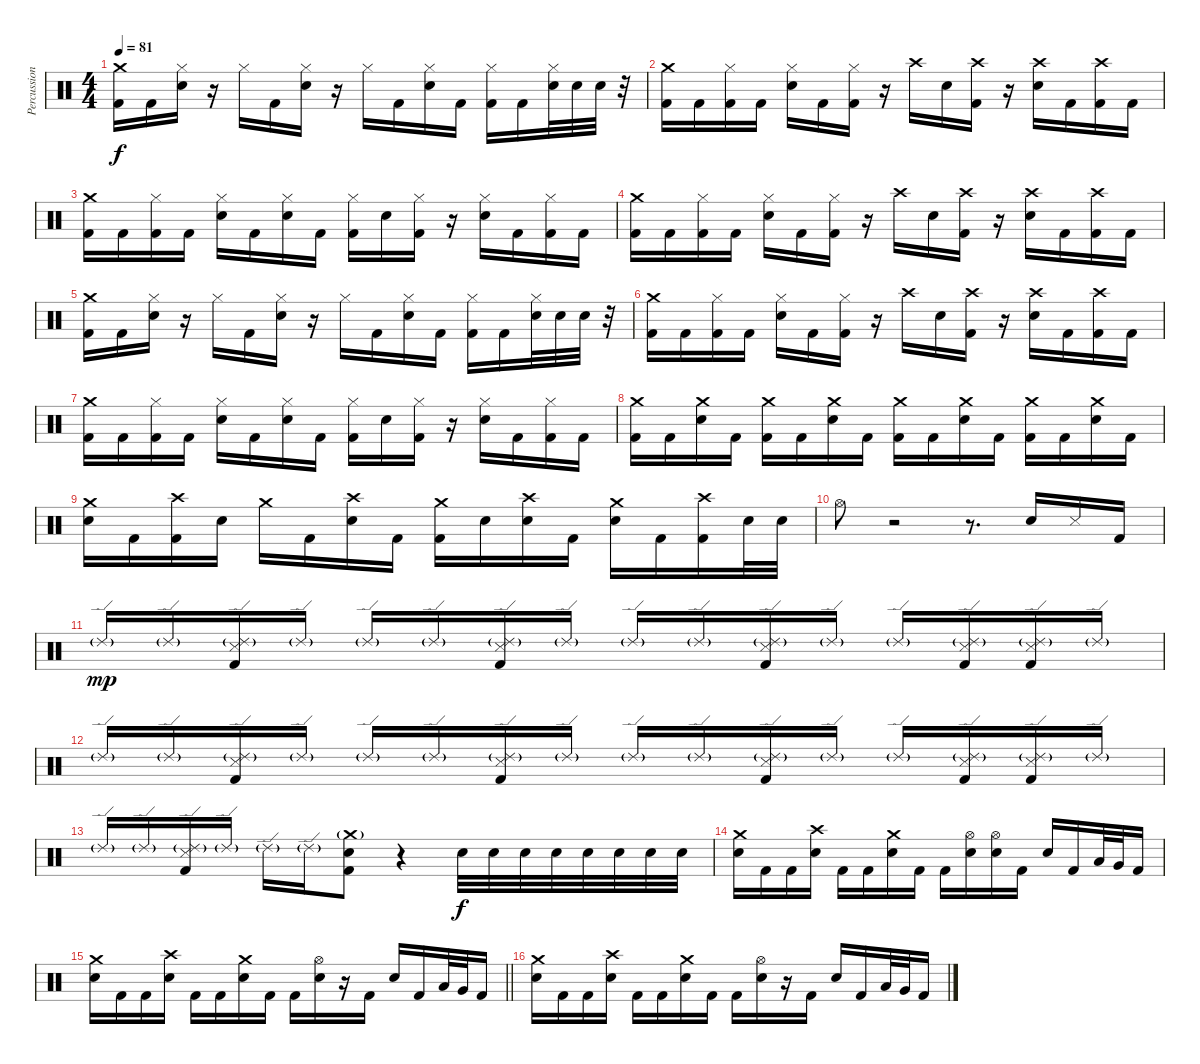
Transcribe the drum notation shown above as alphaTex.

\track ("Percussions" "Percussion") {instrument percussion}
\staff {score}
\articulation defaults
\ts (4 4)
\tempo 81
\clef neutral
\ks c
("Crash medium (hit)" "Kick (hit) 2").16{dy f} "Kick (hit) 2".16 ("Hi-Hat (closed)" "Electric Snare (hit)").16 r.16 "Hi-Hat (closed)".16 "Kick (hit) 2".16 ("Hi-Hat (closed)" "Electric Snare (hit)").16 r.16 "Hi-Hat (closed)".16 "Kick (hit) 2".16 ("Hi-Hat (closed)" "Electric Snare (hit)").16 "Kick (hit) 2".16 ("Hi-Hat (closed)" "Kick (hit) 2").16 "Kick (hit) 2".16 ("Hi-Hat (closed)" "Electric Snare (hit)").32 "Electric Snare (hit)".32 "Electric Snare (hit)".32 r.32 |
("Crash medium (hit)" "Kick (hit) 2").16 "Kick (hit) 2".16 ("Hi-Hat (closed)" "Kick (hit) 2").16 "Kick (hit) 2".16 ("Hi-Hat (closed)" "Electric Snare (hit)").16 "Kick (hit) 2".16 ("Hi-Hat (closed)" "Kick (hit) 2").16 r.16 "Crash high (hit)".16 "Electric Snare (hit)".16 ("Crash high (hit)" "Kick (hit) 2").16 r.16 ("Crash high (hit)" "Electric Snare (hit)").16 "Kick (hit) 2".16 ("Crash high (hit)" "Kick (hit) 2").16 "Kick (hit) 2".16 |
("Crash medium (hit)" "Kick (hit) 2").16 "Kick (hit) 2".16 ("Hi-Hat (closed)" "Kick (hit) 2").16 "Kick (hit) 2".16 ("Hi-Hat (closed)" "Electric Snare (hit)").16 "Kick (hit) 2".16 ("Hi-Hat (closed)" "Electric Snare (hit)").16 "Kick (hit) 2".16 ("Hi-Hat (closed)" "Kick (hit) 2").16 "Electric Snare (hit)".16 ("Hi-Hat (closed)" "Kick (hit) 2").16 r.16 ("Hi-Hat (closed)" "Electric Snare (hit)").16 "Kick (hit) 2".16 ("Hi-Hat (closed)" "Kick (hit) 2").16 "Kick (hit) 2".16 |
("Crash medium (hit)" "Kick (hit) 2").16 "Kick (hit) 2".16 ("Hi-Hat (closed)" "Kick (hit) 2").16 "Kick (hit) 2".16 ("Hi-Hat (closed)" "Electric Snare (hit)").16 "Kick (hit) 2".16 ("Hi-Hat (closed)" "Kick (hit) 2").16 r.16 "Crash high (hit)".16 "Electric Snare (hit)".16 ("Crash high (hit)" "Kick (hit) 2").16 r.16 ("Crash high (hit)" "Electric Snare (hit)").16 "Kick (hit) 2".16 ("Crash high (hit)" "Kick (hit) 2").16 "Kick (hit) 2".16 |
("Crash medium (hit)" "Kick (hit) 2").16 "Kick (hit) 2".16 ("Hi-Hat (closed)" "Electric Snare (hit)").16 r.16 "Hi-Hat (closed)".16 "Kick (hit) 2".16 ("Hi-Hat (closed)" "Electric Snare (hit)").16 r.16 "Hi-Hat (closed)".16 "Kick (hit) 2".16 ("Hi-Hat (closed)" "Electric Snare (hit)").16 "Kick (hit) 2".16 ("Hi-Hat (closed)" "Kick (hit) 2").16 "Kick (hit) 2".16 ("Hi-Hat (closed)" "Electric Snare (hit)").32 "Electric Snare (hit)".32 "Electric Snare (hit)".32 r.32 |
("Crash medium (hit)" "Kick (hit) 2").16 "Kick (hit) 2".16 ("Hi-Hat (closed)" "Kick (hit) 2").16 "Kick (hit) 2".16 ("Hi-Hat (closed)" "Electric Snare (hit)").16 "Kick (hit) 2".16 ("Hi-Hat (closed)" "Kick (hit) 2").16 r.16 "Crash high (hit)".16 "Electric Snare (hit)".16 ("Crash high (hit)" "Kick (hit) 2").16 r.16 ("Crash high (hit)" "Electric Snare (hit)").16 "Kick (hit) 2".16 ("Crash high (hit)" "Kick (hit) 2").16 "Kick (hit) 2".16 |
("Crash medium (hit)" "Kick (hit) 2").16 "Kick (hit) 2".16 ("Hi-Hat (closed)" "Kick (hit) 2").16 "Kick (hit) 2".16 ("Hi-Hat (closed)" "Electric Snare (hit)").16 "Kick (hit) 2".16 ("Hi-Hat (closed)" "Electric Snare (hit)").16 "Kick (hit) 2".16 ("Hi-Hat (closed)" "Kick (hit) 2").16 "Electric Snare (hit)".16 ("Hi-Hat (closed)" "Kick (hit) 2").16 r.16 ("Hi-Hat (closed)" "Electric Snare (hit)").16 "Kick (hit) 2".16 ("Hi-Hat (closed)" "Kick (hit) 2").16 "Kick (hit) 2".16 |
("Crash medium (hit)" "Kick (hit) 2").16 "Kick (hit) 2".16 ("Crash medium (hit)" "Electric Snare (hit)").16 "Kick (hit) 2".16 ("Crash medium (hit)" "Kick (hit) 2").16 "Kick (hit) 2".16 ("Crash medium (hit)" "Electric Snare (hit)").16 "Kick (hit) 2".16 ("Crash medium (hit)" "Kick (hit) 2").16 "Kick (hit) 2".16 ("Crash medium (hit)" "Electric Snare (hit)").16 "Kick (hit) 2".16 ("Crash medium (hit)" "Kick (hit) 2").16 "Kick (hit) 2".16 ("Crash medium (hit)" "Electric Snare (hit)").16 "Kick (hit) 2".16 |
("Crash medium (hit)" "Electric Snare (hit)").16 "Kick (hit) 2".16 ("Crash high (hit)" "Kick (hit) 2").16 "Electric Snare (hit)".16 "Crash medium (hit)".16 "Kick (hit) 2".16 ("Crash high (hit)" "Electric Snare (hit)").16 "Kick (hit) 2".16 ("Crash medium (hit)" "Kick (hit) 2").16 "Electric Snare (hit)".16 ("Crash high (hit)" "Electric Snare (hit)").16 "Kick (hit) 2".16 ("Crash medium (hit)" "Electric Snare (hit)").16 "Kick (hit) 2".16 ("Crash high (hit)" "Kick (hit) 2").16 "Electric Snare (hit)".32 "Electric Snare (hit)".32 |
"Hi-Hat (open)".8 r.2 r.8{d} "Metronome (bell)".16 "Metronome (hit)".16 "Kick (hit) 2".16 |
"Ride (edge) 2"{g}.16{dy mp} "Ride (edge) 2"{g}.16 ("Ride (edge) 2"{g} "Metronome (hit)" "Kick (hit) 2").16 "Ride (edge) 2"{g}.16 "Ride (edge) 2"{g}.16 "Ride (edge) 2"{g}.16 ("Ride (edge) 2"{g} "Metronome (hit)" "Kick (hit) 2").16 "Ride (edge) 2"{g}.16 "Ride (edge) 2"{g}.16 "Ride (edge) 2"{g}.16 ("Ride (edge) 2"{g} "Metronome (hit)" "Kick (hit) 2").16 "Ride (edge) 2"{g}.16 "Ride (edge) 2"{g}.16 ("Ride (edge) 2"{g} "Metronome (hit)" "Kick (hit) 2").16 ("Ride (edge) 2"{g} "Metronome (hit)" "Kick (hit) 2").16 "Ride (edge) 2"{g}.16 |
"Ride (edge) 2"{g}.16 "Ride (edge) 2"{g}.16 ("Ride (edge) 2"{g} "Metronome (hit)" "Kick (hit) 2").16 "Ride (edge) 2"{g}.16 "Ride (edge) 2"{g}.16 "Ride (edge) 2"{g}.16 ("Ride (edge) 2"{g} "Metronome (hit)" "Kick (hit) 2").16 "Ride (edge) 2"{g}.16 "Ride (edge) 2"{g}.16 "Ride (edge) 2"{g}.16 ("Ride (edge) 2"{g} "Metronome (hit)" "Kick (hit) 2").16 "Ride (edge) 2"{g}.16 "Ride (edge) 2"{g}.16 ("Ride (edge) 2"{g} "Metronome (hit)" "Kick (hit) 2").16 ("Ride (edge) 2"{g} "Metronome (hit)" "Kick (hit) 2").16 "Ride (edge) 2"{g}.16 |
"Ride (edge) 2"{g}.16 "Ride (edge) 2"{g}.16 ("Ride (edge) 2"{g} "Metronome (hit)" "Kick (hit) 2").16 "Ride (edge) 2"{g}.16 "Ride (edge) 2"{g}.16 "Ride (edge) 2"{g}.16 ("Crash medium (hit)"{g} "Electric Snare (hit)" "Kick (hit) 2").8 r.4 "Electric Snare (hit)".32{dy f} "Electric Snare (hit)".32 "Electric Snare (hit)".32 "Electric Snare (hit)".32 "Electric Snare (hit)".32 "Electric Snare (hit)".32 "Electric Snare (hit)".32 "Electric Snare (hit)".32 |
("Crash medium (hit)" "Electric Snare (hit)").16 "Kick (hit) 2".16 "Kick (hit) 2".16 ("Crash high (hit)" "Electric Snare (hit)").16 "Kick (hit) 2".16 "Kick (hit) 2".16 ("Crash medium (hit)" "Electric Snare (hit)").16 "Kick (hit) 2".16 "Kick (hit) 2".16 ("Hi-Hat (open)" "Electric Snare (hit)").16 ("Hi-Hat (open)" "Electric Snare (hit)").16 "Kick (hit) 2".16 "Electric Snare (hit)".16 "Kick (hit) 2".16 "Low Floor Tom (hit)".32 "Very Low Tom (hit)".32 "Kick (hit) 2".16 |
\barLineRight lightlight
("Crash medium (hit)" "Electric Snare (hit)").16 "Kick (hit) 2".16 "Kick (hit) 2".16 ("Crash high (hit)" "Electric Snare (hit)").16 "Kick (hit) 2".16 "Kick (hit) 2".16 ("Crash medium (hit)" "Electric Snare (hit)").16 "Kick (hit) 2".16 "Kick (hit) 2".16 ("Hi-Hat (open)" "Electric Snare (hit)").16 r.16 "Kick (hit) 2".16 "Electric Snare (hit)".16 "Kick (hit) 2".16 "Low Floor Tom (hit)".32 "Very Low Tom (hit)".32 "Kick (hit) 2".16 |
("Crash medium (hit)" "Electric Snare (hit)").16 "Kick (hit) 2".16 "Kick (hit) 2".16 ("Crash high (hit)" "Electric Snare (hit)").16 "Kick (hit) 2".16 "Kick (hit) 2".16 ("Crash medium (hit)" "Electric Snare (hit)").16 "Kick (hit) 2".16 "Kick (hit) 2".16 ("Hi-Hat (open)" "Electric Snare (hit)").16 r.16 "Kick (hit) 2".16 "Electric Snare (hit)".16 "Kick (hit) 2".16 "Low Floor Tom (hit)".32 "Very Low Tom (hit)".32 "Kick (hit) 2".16
